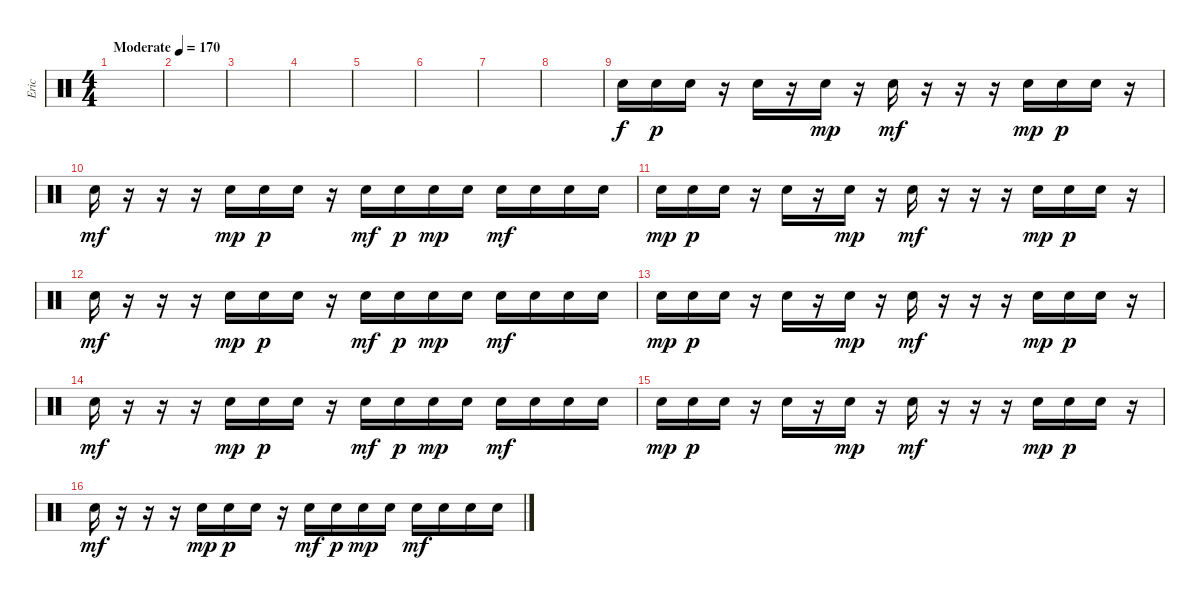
\track ("Eric" "Eric") {instrument percussion}
\staff {score}
\articulation defaults
\ts (4 4)
\tempo (170 "Moderate")
\clef neutral
\ks c
|
|
|
|
|
|
|
|
"Electric Snare (hit)".16 "Electric Snare (hit)".16{dy p} "Electric Snare (hit)".16 r.16 "Electric Snare (hit)".16 r.16 "Electric Snare (hit)".16{dy mp} r.16 "Electric Snare (hit)".16{dy mf} r.16 r.16 r.16 "Electric Snare (hit)".16{dy mp} "Electric Snare (hit)".16{dy p} "Electric Snare (hit)".16 r.16 |
"Electric Snare (hit)".16{dy mf} r.16 r.16 r.16 "Electric Snare (hit)".16{dy mp} "Electric Snare (hit)".16{dy p} "Electric Snare (hit)".16 r.16 "Electric Snare (hit)".16{dy mf} "Electric Snare (hit)".16{dy p} "Electric Snare (hit)".16{dy mp} "Electric Snare (hit)".16 "Electric Snare (hit)".16{dy mf} "Electric Snare (hit)".16 "Electric Snare (hit)".16 "Electric Snare (hit)".16 |
"Electric Snare (hit)".16{dy mp} "Electric Snare (hit)".16{dy p} "Electric Snare (hit)".16 r.16 "Electric Snare (hit)".16 r.16 "Electric Snare (hit)".16{dy mp} r.16 "Electric Snare (hit)".16{dy mf} r.16 r.16 r.16 "Electric Snare (hit)".16{dy mp} "Electric Snare (hit)".16{dy p} "Electric Snare (hit)".16 r.16 |
"Electric Snare (hit)".16{dy mf} r.16 r.16 r.16 "Electric Snare (hit)".16{dy mp} "Electric Snare (hit)".16{dy p} "Electric Snare (hit)".16 r.16 "Electric Snare (hit)".16{dy mf} "Electric Snare (hit)".16{dy p} "Electric Snare (hit)".16{dy mp} "Electric Snare (hit)".16 "Electric Snare (hit)".16{dy mf} "Electric Snare (hit)".16 "Electric Snare (hit)".16 "Electric Snare (hit)".16 |
"Electric Snare (hit)".16{dy mp} "Electric Snare (hit)".16{dy p} "Electric Snare (hit)".16 r.16 "Electric Snare (hit)".16 r.16 "Electric Snare (hit)".16{dy mp} r.16 "Electric Snare (hit)".16{dy mf} r.16 r.16 r.16 "Electric Snare (hit)".16{dy mp} "Electric Snare (hit)".16{dy p} "Electric Snare (hit)".16 r.16 |
"Electric Snare (hit)".16{dy mf} r.16 r.16 r.16 "Electric Snare (hit)".16{dy mp} "Electric Snare (hit)".16{dy p} "Electric Snare (hit)".16 r.16 "Electric Snare (hit)".16{dy mf} "Electric Snare (hit)".16{dy p} "Electric Snare (hit)".16{dy mp} "Electric Snare (hit)".16 "Electric Snare (hit)".16{dy mf} "Electric Snare (hit)".16 "Electric Snare (hit)".16 "Electric Snare (hit)".16 |
"Electric Snare (hit)".16{dy mp} "Electric Snare (hit)".16{dy p} "Electric Snare (hit)".16 r.16 "Electric Snare (hit)".16 r.16 "Electric Snare (hit)".16{dy mp} r.16 "Electric Snare (hit)".16{dy mf} r.16 r.16 r.16 "Electric Snare (hit)".16{dy mp} "Electric Snare (hit)".16{dy p} "Electric Snare (hit)".16 r.16 |
"Electric Snare (hit)".16{dy mf} r.16 r.16 r.16 "Electric Snare (hit)".16{dy mp} "Electric Snare (hit)".16{dy p} "Electric Snare (hit)".16 r.16 "Electric Snare (hit)".16{dy mf} "Electric Snare (hit)".16{dy p} "Electric Snare (hit)".16{dy mp} "Electric Snare (hit)".16 "Electric Snare (hit)".16{dy mf} "Electric Snare (hit)".16 "Electric Snare (hit)".16 "Electric Snare (hit)".16
